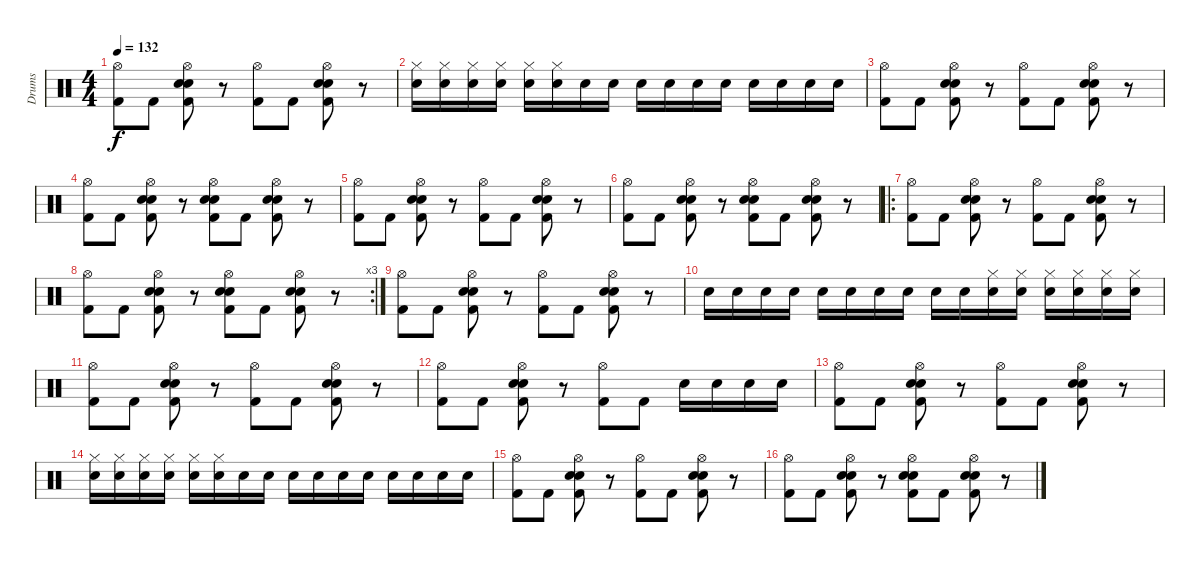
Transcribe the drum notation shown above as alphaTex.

\track ("Drums" "Drums") {instrument percussion}
\staff {score}
\articulation defaults
\ts (4 4)
\tempo 132
\clef neutral
\ks c
("Hi-Hat (open)" "Kick (hit) 2").8{dy f} "Kick (hit) 2".8 ("Hi-Hat (open)" "Electric Snare (hit)" "Snare (hit) 2" "Kick (hit) 2").8 r.8 ("Hi-Hat (open)" "Kick (hit) 2").8 "Kick (hit) 2".8 ("Hi-Hat (open)" "Electric Snare (hit)" "Snare (hit) 2" "Kick (hit) 2").8 r.8 |
("Hi-Hat (closed)" "Electric Snare (hit)").16 ("Hi-Hat (closed)" "Electric Snare (hit)").16 ("Hi-Hat (closed)" "Electric Snare (hit)").16 ("Hi-Hat (closed)" "Electric Snare (hit)").16 ("Hi-Hat (closed)" "Electric Snare (hit)").16 ("Hi-Hat (closed)" "Electric Snare (hit)").16 "Electric Snare (hit)".16 "Electric Snare (hit)".16 "Electric Snare (hit)".16 "Electric Snare (hit)".16 "Snare (hit) 2".16 "Snare (hit) 2".16 "Snare (hit) 2".16 "Snare (hit) 2".16 "Snare (hit) 2".16 "Snare (hit) 2".16 |
("Hi-Hat (open)" "Kick (hit) 2").8 "Kick (hit) 2".8 ("Hi-Hat (open)" "Electric Snare (hit)" "Snare (hit) 2" "Kick (hit) 2").8 r.8 ("Hi-Hat (open)" "Kick (hit) 2").8 "Kick (hit) 2".8 ("Hi-Hat (open)" "Electric Snare (hit)" "Snare (hit) 2" "Kick (hit) 2").8 r.8 |
("Hi-Hat (open)" "Kick (hit) 2").8 "Kick (hit) 2".8 ("Hi-Hat (open)" "Electric Snare (hit)" "Snare (hit) 2" "Kick (hit) 2").8 r.8 ("Hi-Hat (open)" "Electric Snare (hit)" "Snare (hit) 2" "Kick (hit) 2").8 "Kick (hit) 2".8 ("Hi-Hat (open)" "Electric Snare (hit)" "Snare (hit) 2" "Kick (hit) 2").8 r.8 |
("Hi-Hat (open)" "Kick (hit) 2").8 "Kick (hit) 2".8 ("Hi-Hat (open)" "Electric Snare (hit)" "Snare (hit) 2" "Kick (hit) 2").8 r.8 ("Hi-Hat (open)" "Kick (hit) 2").8 "Kick (hit) 2".8 ("Hi-Hat (open)" "Electric Snare (hit)" "Snare (hit) 2" "Kick (hit) 2").8 r.8 |
("Hi-Hat (open)" "Kick (hit) 2").8 "Kick (hit) 2".8 ("Hi-Hat (open)" "Electric Snare (hit)" "Snare (hit) 2" "Kick (hit) 2").8 r.8 ("Hi-Hat (open)" "Electric Snare (hit)" "Snare (hit) 2" "Kick (hit) 2").8 "Kick (hit) 2".8 ("Hi-Hat (open)" "Electric Snare (hit)" "Snare (hit) 2" "Kick (hit) 2").8 r.8 |
\ro
("Hi-Hat (open)" "Kick (hit) 2").8 "Kick (hit) 2".8 ("Hi-Hat (open)" "Electric Snare (hit)" "Snare (hit) 2" "Kick (hit) 2").8 r.8 ("Hi-Hat (open)" "Kick (hit) 2").8 "Kick (hit) 2".8 ("Hi-Hat (open)" "Electric Snare (hit)" "Snare (hit) 2" "Kick (hit) 2").8 r.8 |
\rc 3
("Hi-Hat (open)" "Kick (hit) 2").8 "Kick (hit) 2".8 ("Hi-Hat (open)" "Electric Snare (hit)" "Snare (hit) 2" "Kick (hit) 2").8 r.8 ("Hi-Hat (open)" "Electric Snare (hit)" "Snare (hit) 2" "Kick (hit) 2").8 "Kick (hit) 2".8 ("Hi-Hat (open)" "Electric Snare (hit)" "Snare (hit) 2" "Kick (hit) 2").8 r.8 |
("Hi-Hat (open)" "Kick (hit) 2").8 "Kick (hit) 2".8 ("Hi-Hat (open)" "Electric Snare (hit)" "Snare (hit) 2" "Kick (hit) 2").8 r.8 ("Hi-Hat (open)" "Kick (hit) 2").8 "Kick (hit) 2".8 ("Hi-Hat (open)" "Electric Snare (hit)" "Snare (hit) 2" "Kick (hit) 2").8 r.8 |
"Snare (hit) 2".16 "Snare (hit) 2".16 "Snare (hit) 2".16 "Snare (hit) 2".16 "Snare (hit) 2".16 "Snare (hit) 2".16 "Electric Snare (hit)".16 "Electric Snare (hit)".16 "Electric Snare (hit)".16 "Electric Snare (hit)".16 ("Hi-Hat (closed)" "Electric Snare (hit)").16 ("Hi-Hat (closed)" "Electric Snare (hit)").16 ("Hi-Hat (closed)" "Electric Snare (hit)").16 ("Hi-Hat (closed)" "Electric Snare (hit)").16 ("Hi-Hat (closed)" "Electric Snare (hit)").16 ("Hi-Hat (closed)" "Electric Snare (hit)").16 |
("Hi-Hat (open)" "Kick (hit) 2").8 "Kick (hit) 2".8 ("Hi-Hat (open)" "Electric Snare (hit)" "Snare (hit) 2" "Kick (hit) 2").8 r.8 ("Hi-Hat (open)" "Kick (hit) 2").8 "Kick (hit) 2".8 ("Hi-Hat (open)" "Electric Snare (hit)" "Snare (hit) 2" "Kick (hit) 2").8 r.8 |
("Hi-Hat (open)" "Kick (hit) 2").8 "Kick (hit) 2".8 ("Hi-Hat (open)" "Electric Snare (hit)" "Snare (hit) 2" "Kick (hit) 2").8 r.8 ("Hi-Hat (open)" "Kick (hit) 2").8 "Kick (hit) 2".8 "Snare (hit) 2".16 "Snare (hit) 2".16 "Snare (hit) 2".16 "Snare (hit) 2".16 |
("Hi-Hat (open)" "Kick (hit) 2").8 "Kick (hit) 2".8 ("Hi-Hat (open)" "Electric Snare (hit)" "Snare (hit) 2" "Kick (hit) 2").8 r.8 ("Hi-Hat (open)" "Kick (hit) 2").8 "Kick (hit) 2".8 ("Hi-Hat (open)" "Electric Snare (hit)" "Snare (hit) 2" "Kick (hit) 2").8 r.8 |
("Hi-Hat (closed)" "Electric Snare (hit)").16 ("Hi-Hat (closed)" "Electric Snare (hit)").16 ("Hi-Hat (closed)" "Electric Snare (hit)").16 ("Hi-Hat (closed)" "Electric Snare (hit)").16 ("Hi-Hat (closed)" "Electric Snare (hit)").16 ("Hi-Hat (closed)" "Electric Snare (hit)").16 "Electric Snare (hit)".16 "Electric Snare (hit)".16 "Electric Snare (hit)".16 "Electric Snare (hit)".16 "Snare (hit) 2".16 "Snare (hit) 2".16 "Snare (hit) 2".16 "Snare (hit) 2".16 "Snare (hit) 2".16 "Snare (hit) 2".16 |
("Hi-Hat (open)" "Kick (hit) 2").8 "Kick (hit) 2".8 ("Hi-Hat (open)" "Electric Snare (hit)" "Snare (hit) 2" "Kick (hit) 2").8 r.8 ("Hi-Hat (open)" "Kick (hit) 2").8 "Kick (hit) 2".8 ("Hi-Hat (open)" "Electric Snare (hit)" "Snare (hit) 2" "Kick (hit) 2").8 r.8 |
("Hi-Hat (open)" "Kick (hit) 2").8 "Kick (hit) 2".8 ("Hi-Hat (open)" "Electric Snare (hit)" "Snare (hit) 2" "Kick (hit) 2").8 r.8 ("Hi-Hat (open)" "Electric Snare (hit)" "Snare (hit) 2" "Kick (hit) 2").8 "Kick (hit) 2".8 ("Hi-Hat (open)" "Electric Snare (hit)" "Snare (hit) 2" "Kick (hit) 2").8 r.8
